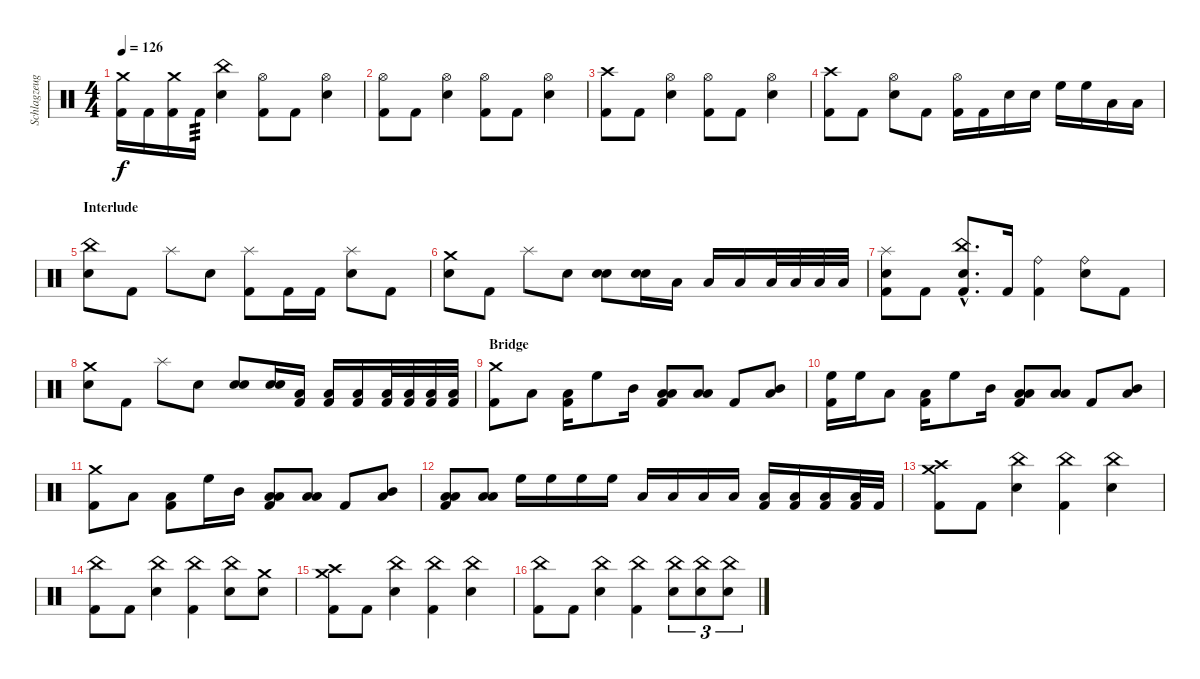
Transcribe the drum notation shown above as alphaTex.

\track ("Schlagzeug" "Schlagzeug") {instrument percussion}
\staff {score}
\articulation defaults
\ts (4 4)
\tempo 126
\clef neutral
\ks c
("Crash medium (hit)" "Kick (hit) 2").16{dy f} "Kick (hit) 2".16 ("Crash medium (hit)" "Kick (hit) 2").16 "Kick (hit) 2".16{tp 3} ("China (hit)" "Snare (hit) 2").4 ("Hi-Hat (open)" "Kick (hit) 2").8 "Kick (hit) 2".8 ("Hi-Hat (open)" "Snare (hit) 2").4 |
("Hi-Hat (open)" "Kick (hit) 2").8 "Kick (hit) 2".8 ("Hi-Hat (open)" "Snare (hit) 2").4 ("Hi-Hat (open)" "Kick (hit) 2").8 "Kick (hit) 2".8 ("Hi-Hat (open)" "Snare (hit) 2").4 |
("Crash high (hit)" "Kick (hit) 2").8 "Kick (hit) 2".8 ("Hi-Hat (open)" "Snare (hit) 2").4 ("Hi-Hat (open)" "Kick (hit) 2").8 "Kick (hit) 2".8 ("Hi-Hat (open)" "Snare (hit) 2").4 |
("Crash high (hit)" "Kick (hit) 2").8 "Kick (hit) 2".8 ("Hi-Hat (open)" "Snare (hit) 2").8 "Kick (hit) 2".8 ("Hi-Hat (open)" "Kick (hit) 2").16 "Kick (hit) 2".16 "Snare (hit) 2".16 "Snare (hit) 2".16 "High Floor Tom (hit)".16 "High Floor Tom (hit)".16 "Low Tom (hit)".16 "Low Tom (hit)".16 |
\section ("" "Interlude")
("China (hit)" "Snare (hit) 2").8 "Kick (hit) 2".8 "Splash (hit)".8 "Snare (hit) 2".8 ("Splash (hit)" "Kick (hit) 2").8 "Kick (hit) 2".16 "Kick (hit) 2".16 ("Splash (hit)" "Snare (hit) 2").8 "Kick (hit) 2".8 |
("Crash medium (hit)" "Snare (hit) 2").8 "Kick (hit) 2".8 "Splash (hit)".8 "Snare (hit) 2".8 ("Snare (hit) 2" "Snare (hit) 2").8 ("Snare (hit) 2" "Snare (hit) 2").16 "Low Tom (hit)".16 "Low Tom (hit)".16 "Low Tom (hit)".16 "Low Tom (hit)".32 "Low Tom (hit)".32 "Low Tom (hit)".32 "Low Tom (hit)".32 |
("Splash (hit)" "Snare (hit) 2" "Kick (hit) 2").8 "Kick (hit) 2".8 ("China (hit)"{hac} "Snare (hit) 2"{hac} "Kick (hit) 2"{hac}).8{d} "Kick (hit) 2".16 ("Ride (bell)" "Kick (hit) 2").4 ("Ride (bell)" "Snare (hit) 2").8 "Kick (hit) 2".8 |
("Crash medium (hit)" "Snare (hit) 2").8 "Kick (hit) 2".8 "Splash (hit)".8 "Snare (hit) 2".8 ("Snare (hit) 2" "Snare (hit) 2").8 ("Snare (hit) 2" "Snare (hit) 2").16 ("Low Floor Tom (hit)" "Kick (hit) 2").16 ("Low Floor Tom (hit)" "Kick (hit) 2").16 ("Low Floor Tom (hit)" "Kick (hit) 2").16 ("Low Floor Tom (hit)" "Kick (hit) 2").32 ("Low Floor Tom (hit)" "Kick (hit) 2").32 ("Low Floor Tom (hit)" "Kick (hit) 2").32 ("Low Floor Tom (hit)" "Kick (hit) 2").32 |
\section ("" "Bridge")
("Crash medium (hit)" "Kick (hit) 2").8 "Low Tom (hit)".8 ("Low Tom (hit)" "Kick (hit) 2").16 "High Floor Tom (hit)".8 "Mid Tom (hit)".16 ("Low Tom (hit)" "Low Floor Tom (hit)" "Kick (hit) 2").8 ("Low Tom (hit)" "Low Floor Tom (hit)").8 "Kick (hit) 2".8 ("Mid Tom (hit)" "Low Tom (hit)").8 |
("High Floor Tom (hit)" "Kick (hit) 2").16 "High Floor Tom (hit)".16 "Low Tom (hit)".8 ("Low Tom (hit)" "Kick (hit) 2").16 "High Floor Tom (hit)".8 "Mid Tom (hit)".16 ("Low Tom (hit)" "Low Floor Tom (hit)" "Kick (hit) 2").8 ("Low Tom (hit)" "Low Floor Tom (hit)").8 "Kick (hit) 2".8 ("Mid Tom (hit)" "Low Tom (hit)").8 |
("Crash medium (hit)" "Kick (hit) 2").8 "Low Tom (hit)".8 ("Low Tom (hit)" "Kick (hit) 2").8 "High Floor Tom (hit)".16 "Mid Tom (hit)".16 ("Low Tom (hit)" "Low Floor Tom (hit)" "Kick (hit) 2").8 ("Low Tom (hit)" "Low Floor Tom (hit)").8 "Kick (hit) 2".8 ("Mid Tom (hit)" "Low Tom (hit)").8 |
("Low Tom (hit)" "Low Floor Tom (hit)" "Kick (hit) 2").8 ("Low Tom (hit)" "Low Floor Tom (hit)").8 "High Floor Tom (hit)".16 "High Floor Tom (hit)".16 "High Floor Tom (hit)".16 "High Floor Tom (hit)".16 "Low Tom (hit)".16 "Low Tom (hit)".16 "Low Tom (hit)".16 "Low Tom (hit)".16 ("Low Floor Tom (hit)" "Kick (hit) 2").16 ("Low Floor Tom (hit)" "Kick (hit) 2").16 ("Low Floor Tom (hit)" "Kick (hit) 2").16 ("Low Floor Tom (hit)" "Kick (hit) 2").32 "Kick (hit) 2".32 |
("Crash medium (hit)" "Crash high (hit)" "Kick (hit) 2").8 "Kick (hit) 2".8 ("China (hit)" "Snare (hit) 2").4 ("China (hit)" "Kick (hit) 2").4 ("China (hit)" "Snare (hit) 2").4 |
("China (hit)" "Kick (hit) 2").8 "Kick (hit) 2".8 ("China (hit)" "Snare (hit) 2").4 ("China (hit)" "Kick (hit) 2").4 ("China (hit)" "Snare (hit) 2").8 ("Crash medium (hit)" "Snare (hit) 2").8 |
("Crash medium (hit)" "Crash high (hit)" "Kick (hit) 2").8 "Kick (hit) 2".8 ("China (hit)" "Snare (hit) 2").4 ("China (hit)" "Kick (hit) 2").4 ("China (hit)" "Snare (hit) 2").4 |
("China (hit)" "Kick (hit) 2").8 "Kick (hit) 2".8 ("China (hit)" "Snare (hit) 2").4 ("China (hit)" "Kick (hit) 2").4 ("China (hit)" "Snare (hit) 2").8{tu (3 2)} ("China (hit)" "Snare (hit) 2").8{tu (3 2)} ("China (hit)" "Snare (hit) 2").8{tu (3 2)}
